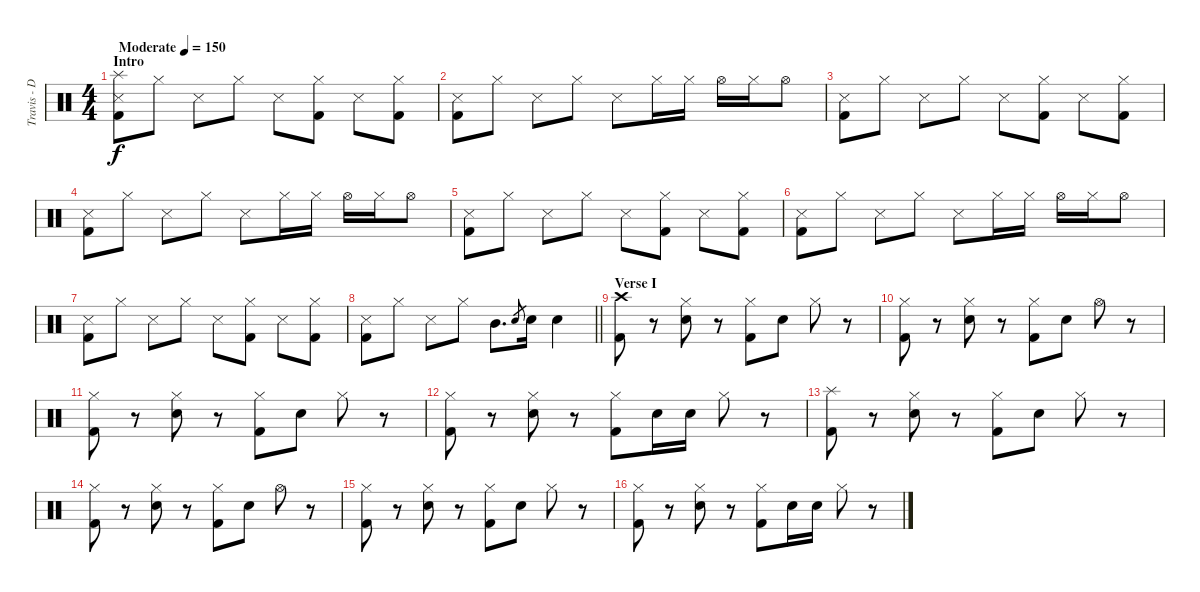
\track ("Travis - Drums" "Travis - D") {instrument percussion}
\staff {score}
\articulation defaults
\ts (4 4)
\section ("" "Intro")
\tempo (150 "Moderate")
\clef neutral
\ks c
("Splash (hit)" "Snare (side stick) 3" "Kick (hit) 2").8{dy f} "Hi-Hat (closed)".8 "Snare (side stick) 3".8 "Hi-Hat (closed)".8 "Snare (side stick) 3".8 ("Hi-Hat (closed)" "Kick (hit) 2").8 "Snare (side stick) 3".8 ("Hi-Hat (closed)" "Kick (hit) 2").8 |
("Snare (side stick) 3" "Kick (hit) 2").8 "Hi-Hat (closed)".8 "Snare (side stick) 3".8 "Hi-Hat (closed)".8 "Snare (side stick) 3".8 "Hi-Hat (closed)".16 "Hi-Hat (closed)".16 "Hi-Hat (open)".16 "Hi-Hat (closed)".16 "Hi-Hat (open)".8 |
("Snare (side stick) 3" "Kick (hit) 2").8 "Hi-Hat (closed)".8 "Snare (side stick) 3".8 "Hi-Hat (closed)".8 "Snare (side stick) 3".8 ("Hi-Hat (closed)" "Kick (hit) 2").8 "Snare (side stick) 3".8 ("Hi-Hat (closed)" "Kick (hit) 2").8 |
("Snare (side stick) 3" "Kick (hit) 2").8 "Hi-Hat (closed)".8 "Snare (side stick) 3".8 "Hi-Hat (closed)".8 "Snare (side stick) 3".8 "Hi-Hat (closed)".16 "Hi-Hat (closed)".16 "Hi-Hat (open)".16 "Hi-Hat (closed)".16 "Hi-Hat (open)".8 |
("Snare (side stick) 3" "Kick (hit) 2").8 "Hi-Hat (closed)".8 "Snare (side stick) 3".8 "Hi-Hat (closed)".8 "Snare (side stick) 3".8 ("Hi-Hat (closed)" "Kick (hit) 2").8 "Snare (side stick) 3".8 ("Hi-Hat (closed)" "Kick (hit) 2").8 |
("Snare (side stick) 3" "Kick (hit) 2").8 "Hi-Hat (closed)".8 "Snare (side stick) 3".8 "Hi-Hat (closed)".8 "Snare (side stick) 3".8 "Hi-Hat (closed)".16 "Hi-Hat (closed)".16 "Hi-Hat (open)".16 "Hi-Hat (closed)".16 "Hi-Hat (open)".8 |
("Snare (side stick) 3" "Kick (hit) 2").8 "Hi-Hat (closed)".8 "Snare (side stick) 3".8 "Hi-Hat (closed)".8 "Snare (side stick) 3".8 ("Hi-Hat (closed)" "Kick (hit) 2").8 "Snare (side stick) 3".8 ("Hi-Hat (closed)" "Kick (hit) 2").8 |
\barLineRight lightlight
("Snare (side stick) 3" "Kick (hit) 2").8 "Hi-Hat (closed)".8 "Snare (side stick) 3".8 "Hi-Hat (closed)".8 "Mid Tom (hit)".8{d} "Electric Snare (hit)".8{gr} "Electric Snare (hit)".16 "Electric Snare (hit)".4 |
\section ("" "Verse I")
("Crash high (hit)" "Kick (hit) 2").8 r.8 ("Hi-Hat (closed)" "Electric Snare (hit)").8 r.8 ("Hi-Hat (closed)" "Kick (hit) 2").8 "Electric Snare (hit)".8 "Hi-Hat (closed)".8 r.8 |
("Hi-Hat (closed)" "Kick (hit) 2").8 r.8 ("Hi-Hat (closed)" "Electric Snare (hit)").8 r.8 ("Hi-Hat (closed)" "Kick (hit) 2").8 "Electric Snare (hit)".8 "Hi-Hat (open)".8 r.8 |
("Hi-Hat (closed)" "Kick (hit) 2").8 r.8 ("Hi-Hat (closed)" "Electric Snare (hit)").8 r.8 ("Hi-Hat (closed)" "Kick (hit) 2").8 "Electric Snare (hit)".8 "Hi-Hat (closed)".8 r.8 |
("Hi-Hat (closed)" "Kick (hit) 2").8 r.8 ("Hi-Hat (closed)" "Electric Snare (hit)").8 r.8 ("Hi-Hat (closed)" "Kick (hit) 2").8 "Electric Snare (hit)".16 "Electric Snare (hit)".16 "Hi-Hat (closed)".8 r.8 |
("Splash (hit)" "Kick (hit) 2").8 r.8 ("Hi-Hat (closed)" "Electric Snare (hit)").8 r.8 ("Hi-Hat (closed)" "Kick (hit) 2").8 "Electric Snare (hit)".8 "Hi-Hat (closed)".8 r.8 |
("Hi-Hat (closed)" "Kick (hit) 2").8 r.8 ("Hi-Hat (closed)" "Electric Snare (hit)").8 r.8 ("Hi-Hat (closed)" "Kick (hit) 2").8 "Electric Snare (hit)".8 "Hi-Hat (open)".8 r.8 |
("Hi-Hat (closed)" "Kick (hit) 2").8 r.8 ("Hi-Hat (closed)" "Electric Snare (hit)").8 r.8 ("Hi-Hat (closed)" "Kick (hit) 2").8 "Electric Snare (hit)".8 "Hi-Hat (closed)".8 r.8 |
("Hi-Hat (closed)" "Kick (hit) 2").8 r.8 ("Hi-Hat (closed)" "Electric Snare (hit)").8 r.8 ("Hi-Hat (closed)" "Kick (hit) 2").8 "Electric Snare (hit)".16 "Electric Snare (hit)".16 "Hi-Hat (closed)".8 r.8
